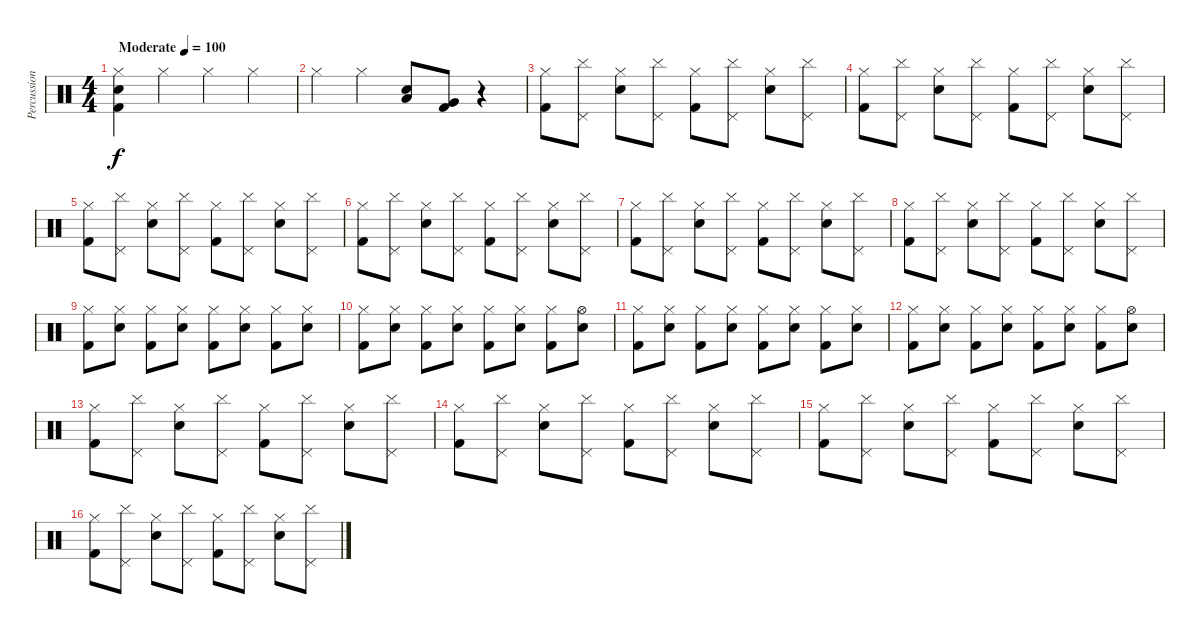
\track ("Percussion" "Percussion") {solo instrument percussion}
\staff {score}
\articulation defaults
\ts (4 4)
\tempo (100 "Moderate")
\clef neutral
\ks c
("Hi-Hat (closed)" "Snare (hit) 2" "Kick (hit) 2").4{dy f} "Hi-Hat (closed)".4 "Hi-Hat (closed)".4 "Hi-Hat (closed)".4 |
"Hi-Hat (closed)".4 "Hi-Hat (closed)".4 ("Low Tom (hit)" "Snare (hit) 2").8 ("Very Low Tom (hit)" "Kick (hit) 2").8 r.4 |
("Hi-Hat (closed)" "Kick (hit) 2").8 ("Pedal Hi-Hat (hit)" "Cymbal (hit)").8 ("Hi-Hat (closed)" "Snare (hit) 2").8 ("Pedal Hi-Hat (hit)" "Cymbal (hit)").8 ("Hi-Hat (closed)" "Kick (hit) 2").8 ("Pedal Hi-Hat (hit)" "Cymbal (hit)").8 ("Hi-Hat (closed)" "Snare (hit) 2").8 ("Pedal Hi-Hat (hit)" "Cymbal (hit)").8 |
("Hi-Hat (closed)" "Kick (hit) 2").8 ("Pedal Hi-Hat (hit)" "Cymbal (hit)").8 ("Hi-Hat (closed)" "Snare (hit) 2").8 ("Pedal Hi-Hat (hit)" "Cymbal (hit)").8 ("Hi-Hat (closed)" "Kick (hit) 2").8 ("Pedal Hi-Hat (hit)" "Cymbal (hit)").8 ("Hi-Hat (closed)" "Snare (hit) 2").8 ("Pedal Hi-Hat (hit)" "Cymbal (hit)").8 |
("Hi-Hat (closed)" "Kick (hit) 2").8 ("Pedal Hi-Hat (hit)" "Cymbal (hit)").8 ("Hi-Hat (closed)" "Snare (hit) 2").8 ("Pedal Hi-Hat (hit)" "Cymbal (hit)").8 ("Hi-Hat (closed)" "Kick (hit) 2").8 ("Pedal Hi-Hat (hit)" "Cymbal (hit)").8 ("Hi-Hat (closed)" "Snare (hit) 2").8 ("Pedal Hi-Hat (hit)" "Cymbal (hit)").8 |
("Hi-Hat (closed)" "Kick (hit) 2").8 ("Pedal Hi-Hat (hit)" "Cymbal (hit)").8 ("Hi-Hat (closed)" "Snare (hit) 2").8 ("Pedal Hi-Hat (hit)" "Cymbal (hit)").8 ("Hi-Hat (closed)" "Kick (hit) 2").8 ("Pedal Hi-Hat (hit)" "Cymbal (hit)").8 ("Hi-Hat (closed)" "Snare (hit) 2").8 ("Pedal Hi-Hat (hit)" "Cymbal (hit)").8 |
("Hi-Hat (closed)" "Kick (hit) 2").8 ("Pedal Hi-Hat (hit)" "Cymbal (hit)").8 ("Hi-Hat (closed)" "Snare (hit) 2").8 ("Pedal Hi-Hat (hit)" "Cymbal (hit)").8 ("Hi-Hat (closed)" "Kick (hit) 2").8 ("Pedal Hi-Hat (hit)" "Cymbal (hit)").8 ("Hi-Hat (closed)" "Snare (hit) 2").8 ("Pedal Hi-Hat (hit)" "Cymbal (hit)").8 |
("Hi-Hat (closed)" "Kick (hit) 2").8 ("Pedal Hi-Hat (hit)" "Cymbal (hit)").8 ("Hi-Hat (closed)" "Snare (hit) 2").8 ("Pedal Hi-Hat (hit)" "Cymbal (hit)").8 ("Hi-Hat (closed)" "Kick (hit) 2").8 ("Pedal Hi-Hat (hit)" "Cymbal (hit)").8 ("Hi-Hat (closed)" "Snare (hit) 2").8 ("Pedal Hi-Hat (hit)" "Cymbal (hit)").8 |
("Hi-Hat (closed)" "Kick (hit) 2").8 ("Hand Clap (hit)" "Hi-Hat (closed)").8 ("Hi-Hat (closed)" "Kick (hit) 2").8 ("Hand Clap (hit)" "Hi-Hat (closed)").8 ("Hi-Hat (closed)" "Kick (hit) 2").8 ("Hand Clap (hit)" "Hi-Hat (closed)").8 ("Hi-Hat (closed)" "Kick (hit) 2").8 ("Hand Clap (hit)" "Hi-Hat (closed)").8 |
("Hi-Hat (closed)" "Kick (hit) 2").8 ("Hand Clap (hit)" "Hi-Hat (closed)").8 ("Hi-Hat (closed)" "Kick (hit) 2").8 ("Hand Clap (hit)" "Hi-Hat (closed)").8 ("Hi-Hat (closed)" "Kick (hit) 2").8 ("Hand Clap (hit)" "Hi-Hat (closed)").8 ("Hi-Hat (closed)" "Kick (hit) 2").8 ("Hi-Hat (open)" "Snare (hit) 2").8 |
("Hi-Hat (closed)" "Kick (hit) 2").8 ("Hand Clap (hit)" "Hi-Hat (closed)").8 ("Hi-Hat (closed)" "Kick (hit) 2").8 ("Hand Clap (hit)" "Hi-Hat (closed)").8 ("Hi-Hat (closed)" "Kick (hit) 2").8 ("Hand Clap (hit)" "Hi-Hat (closed)").8 ("Hi-Hat (closed)" "Kick (hit) 2").8 ("Hand Clap (hit)" "Hi-Hat (closed)").8 |
("Hi-Hat (closed)" "Kick (hit) 2").8 ("Hand Clap (hit)" "Hi-Hat (closed)").8 ("Hi-Hat (closed)" "Kick (hit) 2").8 ("Hand Clap (hit)" "Hi-Hat (closed)").8 ("Hi-Hat (closed)" "Kick (hit) 2").8 ("Hand Clap (hit)" "Hi-Hat (closed)").8 ("Hi-Hat (closed)" "Kick (hit) 2").8 ("Hi-Hat (open)" "Snare (hit) 2").8 |
("Hi-Hat (closed)" "Kick (hit) 2").8 ("Pedal Hi-Hat (hit)" "Cymbal (hit)").8 ("Hi-Hat (closed)" "Snare (hit) 2").8 ("Pedal Hi-Hat (hit)" "Cymbal (hit)").8 ("Hi-Hat (closed)" "Kick (hit) 2").8 ("Pedal Hi-Hat (hit)" "Cymbal (hit)").8 ("Hi-Hat (closed)" "Snare (hit) 2").8 ("Pedal Hi-Hat (hit)" "Cymbal (hit)").8 |
("Hi-Hat (closed)" "Kick (hit) 2").8 ("Pedal Hi-Hat (hit)" "Cymbal (hit)").8 ("Hi-Hat (closed)" "Snare (hit) 2").8 ("Pedal Hi-Hat (hit)" "Cymbal (hit)").8 ("Hi-Hat (closed)" "Kick (hit) 2").8 ("Pedal Hi-Hat (hit)" "Cymbal (hit)").8 ("Hi-Hat (closed)" "Snare (hit) 2").8 ("Pedal Hi-Hat (hit)" "Cymbal (hit)").8 |
("Hi-Hat (closed)" "Kick (hit) 2").8 ("Pedal Hi-Hat (hit)" "Cymbal (hit)").8 ("Hi-Hat (closed)" "Snare (hit) 2").8 ("Pedal Hi-Hat (hit)" "Cymbal (hit)").8 ("Hi-Hat (closed)" "Kick (hit) 2").8 ("Pedal Hi-Hat (hit)" "Cymbal (hit)").8 ("Hi-Hat (closed)" "Snare (hit) 2").8 ("Pedal Hi-Hat (hit)" "Cymbal (hit)").8 |
("Hi-Hat (closed)" "Kick (hit) 2").8 ("Pedal Hi-Hat (hit)" "Cymbal (hit)").8 ("Hi-Hat (closed)" "Snare (hit) 2").8 ("Pedal Hi-Hat (hit)" "Cymbal (hit)").8 ("Hi-Hat (closed)" "Kick (hit) 2").8 ("Pedal Hi-Hat (hit)" "Cymbal (hit)").8 ("Hi-Hat (closed)" "Snare (hit) 2").8 ("Pedal Hi-Hat (hit)" "Cymbal (hit)").8
